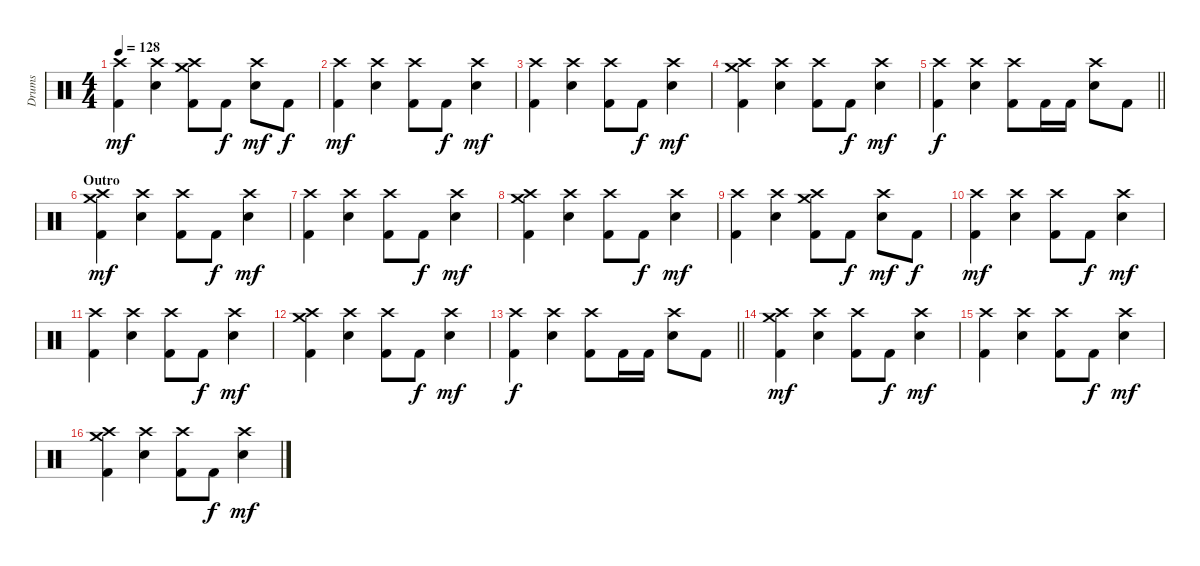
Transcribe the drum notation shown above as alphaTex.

\track ("Drums" "Drums") {instrument percussion}
\staff {score}
\articulation defaults
\ts (4 4)
\tempo 128
\clef neutral
\ks c
("Crash high (hit)" "Kick (hit) 2").4{dy mf} ("Crash high (hit)" "Electric Snare (hit)").4 ("Crash medium (hit)" "Crash high (hit)" "Kick (hit) 2").8 "Kick (hit) 2".8{dy f} ("Crash high (hit)" "Electric Snare (hit)").8{dy mf} "Kick (hit) 2".8{dy f} |
("Crash high (hit)" "Kick (hit) 2").4{dy mf} ("Crash high (hit)" "Electric Snare (hit)").4 ("Crash high (hit)" "Kick (hit) 2").8 "Kick (hit) 2".8{dy f} ("Crash high (hit)" "Electric Snare (hit)").4{dy mf} |
("Crash high (hit)" "Kick (hit) 2").4 ("Crash high (hit)" "Electric Snare (hit)").4 ("Crash high (hit)" "Kick (hit) 2").8 "Kick (hit) 2".8{dy f} ("Crash high (hit)" "Electric Snare (hit)").4{dy mf} |
("Crash medium (hit)" "Crash high (hit)" "Kick (hit) 2").4 ("Crash high (hit)" "Electric Snare (hit)").4 ("Crash high (hit)" "Kick (hit) 2").8 "Kick (hit) 2".8{dy f} ("Crash high (hit)" "Electric Snare (hit)").4{dy mf} |
\barLineRight lightlight
("Crash high (hit)" "Kick (hit) 2").4{dy f} ("Crash high (hit)" "Electric Snare (hit)").4 ("Crash high (hit)" "Kick (hit) 2").8 "Kick (hit) 2".16 "Kick (hit) 2".16 ("Crash high (hit)" "Electric Snare (hit)").8 "Kick (hit) 2".8 |
\section ("" "Outro")
("Crash medium (hit)" "Crash high (hit)" "Kick (hit) 2").4{dy mf} ("Crash high (hit)" "Electric Snare (hit)").4 ("Crash high (hit)" "Kick (hit) 2").8 "Kick (hit) 2".8{dy f} ("Crash high (hit)" "Electric Snare (hit)").4{dy mf} |
("Crash high (hit)" "Kick (hit) 2").4 ("Crash high (hit)" "Electric Snare (hit)").4 ("Crash high (hit)" "Kick (hit) 2").8 "Kick (hit) 2".8{dy f} ("Crash high (hit)" "Electric Snare (hit)").4{dy mf} |
("Crash medium (hit)" "Crash high (hit)" "Kick (hit) 2").4 ("Crash high (hit)" "Electric Snare (hit)").4 ("Crash high (hit)" "Kick (hit) 2").8 "Kick (hit) 2".8{dy f} ("Crash high (hit)" "Electric Snare (hit)").4{dy mf} |
("Crash high (hit)" "Kick (hit) 2").4 ("Crash high (hit)" "Electric Snare (hit)").4 ("Crash medium (hit)" "Crash high (hit)" "Kick (hit) 2").8 "Kick (hit) 2".8{dy f} ("Crash high (hit)" "Electric Snare (hit)").8{dy mf} "Kick (hit) 2".8{dy f} |
("Crash high (hit)" "Kick (hit) 2").4{dy mf} ("Crash high (hit)" "Electric Snare (hit)").4 ("Crash high (hit)" "Kick (hit) 2").8 "Kick (hit) 2".8{dy f} ("Crash high (hit)" "Electric Snare (hit)").4{dy mf} |
("Crash high (hit)" "Kick (hit) 2").4 ("Crash high (hit)" "Electric Snare (hit)").4 ("Crash high (hit)" "Kick (hit) 2").8 "Kick (hit) 2".8{dy f} ("Crash high (hit)" "Electric Snare (hit)").4{dy mf} |
("Crash medium (hit)" "Crash high (hit)" "Kick (hit) 2").4 ("Crash high (hit)" "Electric Snare (hit)").4 ("Crash high (hit)" "Kick (hit) 2").8 "Kick (hit) 2".8{dy f} ("Crash high (hit)" "Electric Snare (hit)").4{dy mf} |
\barLineRight lightlight
("Crash high (hit)" "Kick (hit) 2").4{dy f} ("Crash high (hit)" "Electric Snare (hit)").4 ("Crash high (hit)" "Kick (hit) 2").8 "Kick (hit) 2".16 "Kick (hit) 2".16 ("Crash high (hit)" "Electric Snare (hit)").8 "Kick (hit) 2".8 |
("Crash medium (hit)" "Crash high (hit)" "Kick (hit) 2").4{dy mf} ("Crash high (hit)" "Electric Snare (hit)").4 ("Crash high (hit)" "Kick (hit) 2").8 "Kick (hit) 2".8{dy f} ("Crash high (hit)" "Electric Snare (hit)").4{dy mf} |
("Crash high (hit)" "Kick (hit) 2").4 ("Crash high (hit)" "Electric Snare (hit)").4 ("Crash high (hit)" "Kick (hit) 2").8 "Kick (hit) 2".8{dy f} ("Crash high (hit)" "Electric Snare (hit)").4{dy mf} |
("Crash medium (hit)" "Crash high (hit)" "Kick (hit) 2").4 ("Crash high (hit)" "Electric Snare (hit)").4 ("Crash high (hit)" "Kick (hit) 2").8 "Kick (hit) 2".8{dy f} ("Crash high (hit)" "Electric Snare (hit)").4{dy mf}
